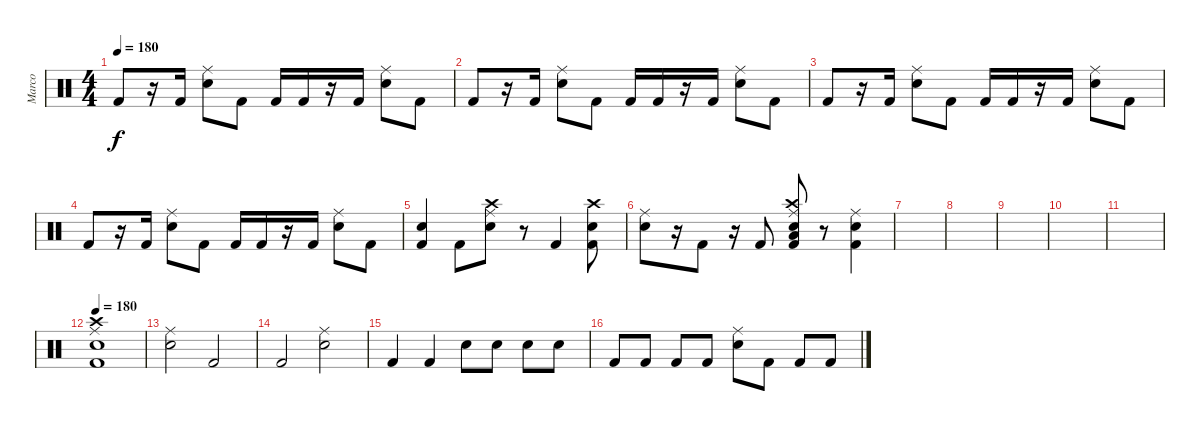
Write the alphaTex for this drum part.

\track ("Marco" "Marco") {instrument percussion}
\staff {score}
\articulation defaults
\ts (4 4)
\tempo 180
\clef neutral
\ks c "Kick (hit) 2".8{dy f}
r.16 "Kick (hit) 2".16 ("Electric Snare (hit)" "Ride (middle)").8 "Kick (hit) 2".8 "Kick (hit) 2".16 "Kick (hit) 2".16 r.16 "Kick (hit) 2".16 ("Electric Snare (hit)" "Ride (middle)").8 "Kick (hit) 2".8 |
"Kick (hit) 2".8 r.16 "Kick (hit) 2".16 ("Electric Snare (hit)" "Ride (middle)").8 "Kick (hit) 2".8 "Kick (hit) 2".16 "Kick (hit) 2".16 r.16 "Kick (hit) 2".16 ("Electric Snare (hit)" "Ride (middle)").8 "Kick (hit) 2".8 |
"Kick (hit) 2".8 r.16 "Kick (hit) 2".16 ("Electric Snare (hit)" "Ride (middle)").8 "Kick (hit) 2".8 "Kick (hit) 2".16 "Kick (hit) 2".16 r.16 "Kick (hit) 2".16 ("Electric Snare (hit)" "Ride (middle)").8 "Kick (hit) 2".8 |
"Kick (hit) 2".8 r.16 "Kick (hit) 2".16 ("Electric Snare (hit)" "Ride (middle)").8 "Kick (hit) 2".8 "Kick (hit) 2".16 "Kick (hit) 2".16 r.16 "Kick (hit) 2".16 ("Electric Snare (hit)" "Ride (middle)").8 "Kick (hit) 2".8 |
("Kick (hit) 2" "Electric Snare (hit)").4 "Kick (hit) 2".8 ("Electric Snare (hit)" "Ride (middle)" "Crash high (hit)").8 r.8 "Kick (hit) 2".4 ("Kick (hit) 2" "Electric Snare (hit)" "Crash high (hit)").8 |
("Electric Snare (hit)" "Ride (middle)").8 r.16 "Kick (hit) 2".8 r.16 "Kick (hit) 2".8 ("Kick (hit) 2" "Ride (middle)" "Electric Snare (hit)" "Low Tom (hit)" "Crash high (hit)").8 r.8 ("Kick (hit) 2" "Electric Snare (hit)" "Ride (middle)").4 |
|
|
|
|
|
\tempo 180
("Kick (hit) 2" "Electric Snare (hit)" "Ride (middle)" "Crash high (hit)").1 |
("Electric Snare (hit)" "Ride (middle)").2 "Kick (hit) 2".2 |
"Kick (hit) 2".2 ("Electric Snare (hit)" "Ride (middle)").2 |
"Kick (hit) 2".4 "Kick (hit) 2".4 "Electric Snare (hit)".8 "Electric Snare (hit)".8 "Electric Snare (hit)".8 "Electric Snare (hit)".8 |
"Kick (hit) 2".8 "Kick (hit) 2".8 "Kick (hit) 2".8 "Kick (hit) 2".8 ("Electric Snare (hit)" "Ride (middle)").8 "Kick (hit) 2".8 "Kick (hit) 2".8 "Kick (hit) 2".8
